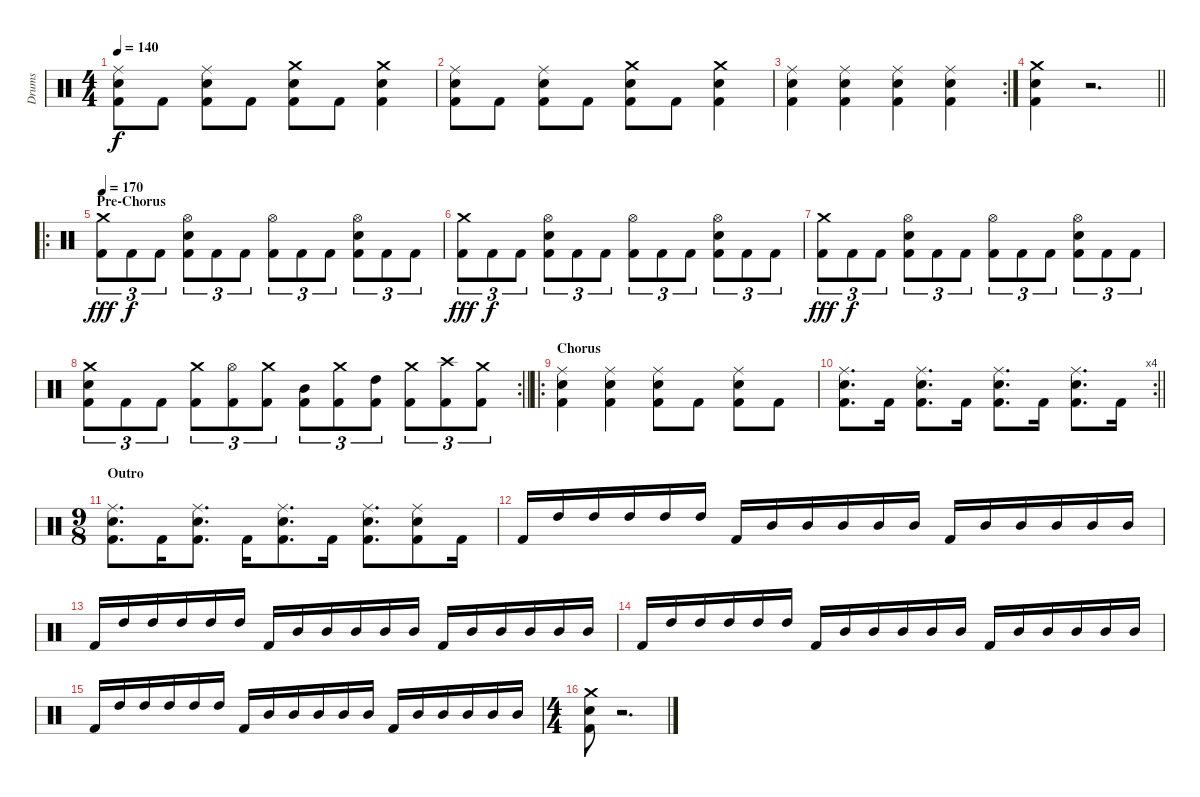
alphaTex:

\track ("Drums" "Drums") {instrument percussion}
\staff {score}
\articulation defaults
\ts (4 4)
\tempo 140
\clef neutral
\ks c
("Ride (middle)" "Snare (hit) 2" "Kick (hit) 2").8{dy f} "Kick (hit) 2".8 ("Ride (middle)" "Snare (hit) 2" "Kick (hit) 2").8 "Kick (hit) 2".8 ("Crash medium (hit)" "Snare (hit) 2" "Kick (hit) 2").8 "Kick (hit) 2".8 ("Crash medium (hit)" "Snare (hit) 2" "Kick (hit) 2").4 |
("Ride (middle)" "Snare (hit) 2" "Kick (hit) 2").8 "Kick (hit) 2".8 ("Ride (middle)" "Snare (hit) 2" "Kick (hit) 2").8 "Kick (hit) 2".8 ("Crash medium (hit)" "Snare (hit) 2" "Kick (hit) 2").8 "Kick (hit) 2".8 ("Crash medium (hit)" "Snare (hit) 2" "Kick (hit) 2").4 |
\rc 2
("Ride (middle)" "Snare (hit) 2" "Kick (hit) 2").4 ("Ride (middle)" "Snare (hit) 2" "Kick (hit) 2").4 ("Ride (middle)" "Snare (hit) 2" "Kick (hit) 2").4 ("Ride (middle)" "Snare (hit) 2" "Kick (hit) 2").4 |
\barLineRight lightlight
("Crash medium (hit)" "Snare (hit) 2" "Kick (hit) 2").4 r.2{d} |
\ro
\section ("" "Pre-Chorus")
\tempo 170
("Crash medium (hit)" "Kick (hit) 2").8{tu (3 2) dy fff} "Kick (hit) 2".8{tu (3 2) dy f} "Kick (hit) 2".8{tu (3 2)} ("Hi-Hat (open)" "Snare (hit) 2" "Kick (hit) 2").8{tu (3 2)} "Kick (hit) 2".8{tu (3 2)} "Kick (hit) 2".8{tu (3 2)} ("Hi-Hat (open)" "Kick (hit) 2").8{tu (3 2)} "Kick (hit) 2".8{tu (3 2)} "Kick (hit) 2".8{tu (3 2)} ("Hi-Hat (open)" "Snare (hit) 2" "Kick (hit) 2").8{tu (3 2)} "Kick (hit) 2".8{tu (3 2)} "Kick (hit) 2".8{tu (3 2)} |
("Crash medium (hit)" "Kick (hit) 2").8{tu (3 2) dy fff} "Kick (hit) 2".8{tu (3 2) dy f} "Kick (hit) 2".8{tu (3 2)} ("Hi-Hat (open)" "Snare (hit) 2" "Kick (hit) 2").8{tu (3 2)} "Kick (hit) 2".8{tu (3 2)} "Kick (hit) 2".8{tu (3 2)} ("Hi-Hat (open)" "Kick (hit) 2").8{tu (3 2)} "Kick (hit) 2".8{tu (3 2)} "Kick (hit) 2".8{tu (3 2)} ("Hi-Hat (open)" "Snare (hit) 2" "Kick (hit) 2").8{tu (3 2)} "Kick (hit) 2".8{tu (3 2)} "Kick (hit) 2".8{tu (3 2)} |
("Crash medium (hit)" "Kick (hit) 2").8{tu (3 2) dy fff} "Kick (hit) 2".8{tu (3 2) dy f} "Kick (hit) 2".8{tu (3 2)} ("Hi-Hat (open)" "Snare (hit) 2" "Kick (hit) 2").8{tu (3 2)} "Kick (hit) 2".8{tu (3 2)} "Kick (hit) 2".8{tu (3 2)} ("Hi-Hat (open)" "Kick (hit) 2").8{tu (3 2)} "Kick (hit) 2".8{tu (3 2)} "Kick (hit) 2".8{tu (3 2)} ("Hi-Hat (open)" "Snare (hit) 2" "Kick (hit) 2").8{tu (3 2)} "Kick (hit) 2".8{tu (3 2)} "Kick (hit) 2".8{tu (3 2)} |
\rc 2
\barLineRight lightlight
("Crash medium (hit)" "Snare (hit) 2" "Kick (hit) 2").8{tu (3 2)} "Kick (hit) 2".8{tu (3 2)} "Kick (hit) 2".8{tu (3 2)} ("Crash medium (hit)" "Kick (hit) 2").8{tu (3 2)} ("Hi-Hat (open)" "Kick (hit) 2").8{tu (3 2)} ("Crash medium (hit)" "Kick (hit) 2").8{tu (3 2)} ("Mid Tom (hit)" "Kick (hit) 2").8{tu (3 2)} ("Crash medium (hit)" "Kick (hit) 2").8{tu (3 2)} ("High Tom (hit)" "Kick (hit) 2").8{tu (3 2)} ("Crash medium (hit)" "Kick (hit) 2").8{tu (3 2)} ("Crash high (hit)" "Kick (hit) 2").8{tu (3 2)} ("Crash medium (hit)" "Kick (hit) 2").8{tu (3 2)} |
\ro
\section ("" "Chorus")
("Ride (middle)" "Snare (hit) 2" "Kick (hit) 2").4 ("Ride (middle)" "Snare (hit) 2" "Kick (hit) 2").4 ("Ride (middle)" "Snare (hit) 2" "Kick (hit) 2").8 "Kick (hit) 2".8 ("Ride (middle)" "Snare (hit) 2" "Kick (hit) 2").8 "Kick (hit) 2".8 |
\rc 4
\barLineRight lightlight
("Ride (middle)" "Snare (hit) 2" "Kick (hit) 2").8{d} "Kick (hit) 2".16 ("Ride (middle)" "Snare (hit) 2" "Kick (hit) 2").8{d} "Kick (hit) 2".16 ("Ride (middle)" "Snare (hit) 2" "Kick (hit) 2").8{d} "Kick (hit) 2".16 ("Ride (middle)" "Snare (hit) 2" "Kick (hit) 2").8{d} "Kick (hit) 2".16 |
\ts (9 8)
\section ("" "Outro")
("Ride (middle)" "Snare (hit) 2" "Kick (hit) 2").8{d} "Kick (hit) 2".16 ("Ride (middle)" "Snare (hit) 2" "Kick (hit) 2").8{d} "Kick (hit) 2".16 ("Ride (middle)" "Snare (hit) 2" "Kick (hit) 2").8{d} "Kick (hit) 2".16 ("Ride (middle)" "Snare (hit) 2" "Kick (hit) 2").8{d} ("Ride (middle)" "Snare (hit) 2" "Kick (hit) 2").8 "Kick (hit) 2".16 |
"Kick (hit) 2".16 "High Tom (hit)".16 "High Tom (hit)".16 "High Tom (hit)".16 "High Tom (hit)".16 "High Tom (hit)".16 "Kick (hit) 2".16 "Mid Tom (hit)".16 "Mid Tom (hit)".16 "Mid Tom (hit)".16 "Mid Tom (hit)".16 "Mid Tom (hit)".16 "Kick (hit) 2".16 "Mid Tom (hit)".16 "Mid Tom (hit)".16 "Mid Tom (hit)".16 "Mid Tom (hit)".16 "Mid Tom (hit)".16 |
"Kick (hit) 2".16 "High Tom (hit)".16 "High Tom (hit)".16 "High Tom (hit)".16 "High Tom (hit)".16 "High Tom (hit)".16 "Kick (hit) 2".16 "Mid Tom (hit)".16 "Mid Tom (hit)".16 "Mid Tom (hit)".16 "Mid Tom (hit)".16 "Mid Tom (hit)".16 "Kick (hit) 2".16 "Mid Tom (hit)".16 "Mid Tom (hit)".16 "Mid Tom (hit)".16 "Mid Tom (hit)".16 "Mid Tom (hit)".16 |
"Kick (hit) 2".16 "High Tom (hit)".16 "High Tom (hit)".16 "High Tom (hit)".16 "High Tom (hit)".16 "High Tom (hit)".16 "Kick (hit) 2".16 "Mid Tom (hit)".16 "Mid Tom (hit)".16 "Mid Tom (hit)".16 "Mid Tom (hit)".16 "Mid Tom (hit)".16 "Kick (hit) 2".16 "Mid Tom (hit)".16 "Mid Tom (hit)".16 "Mid Tom (hit)".16 "Mid Tom (hit)".16 "Mid Tom (hit)".16 |
"Kick (hit) 2".16 "High Tom (hit)".16 "High Tom (hit)".16 "High Tom (hit)".16 "High Tom (hit)".16 "High Tom (hit)".16 "Kick (hit) 2".16 "Mid Tom (hit)".16 "Mid Tom (hit)".16 "Mid Tom (hit)".16 "Mid Tom (hit)".16 "Mid Tom (hit)".16 "Kick (hit) 2".16 "Mid Tom (hit)".16 "Mid Tom (hit)".16 "Mid Tom (hit)".16 "Mid Tom (hit)".16 "Mid Tom (hit)".16 |
\ts (4 4)
("Crash medium (hit)" "Snare (hit) 2" "Kick (hit) 2").8 r.2{d}
